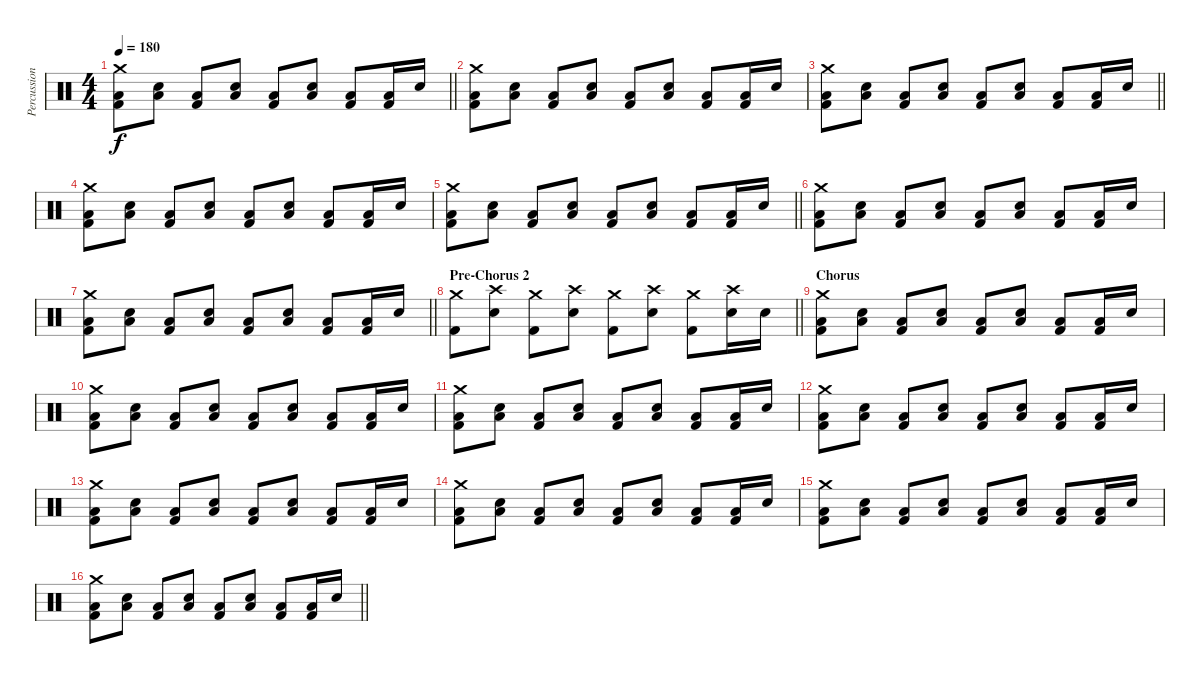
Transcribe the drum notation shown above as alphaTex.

\track ("Percussion" "Percussion") {instrument percussion}
\staff {score}
\articulation defaults
\ts (4 4)
\tempo 180
\clef neutral
\barLineRight lightlight
\ks c
("Low Floor Tom (hit)" "Kick (hit) 2" "Crash medium (hit)").8{dy f} ("Low Floor Tom (hit)" "Snare (hit) 2").8 ("Low Floor Tom (hit)" "Kick (hit) 2").8 ("Low Floor Tom (hit)" "Snare (hit) 2").8 ("Low Floor Tom (hit)" "Kick (hit) 2").8 ("Low Floor Tom (hit)" "Snare (hit) 2").8 ("Low Floor Tom (hit)" "Kick (hit) 2").8 ("Low Floor Tom (hit)" "Kick (hit) 2").16 "Snare (hit) 2".16 |
("Low Floor Tom (hit)" "Kick (hit) 2" "Crash medium (hit)").8 ("Low Floor Tom (hit)" "Snare (hit) 2").8 ("Low Floor Tom (hit)" "Kick (hit) 2").8 ("Low Floor Tom (hit)" "Snare (hit) 2").8 ("Low Floor Tom (hit)" "Kick (hit) 2").8 ("Low Floor Tom (hit)" "Snare (hit) 2").8 ("Low Floor Tom (hit)" "Kick (hit) 2").8 ("Low Floor Tom (hit)" "Kick (hit) 2").16 "Snare (hit) 2".16 |
\barLineRight lightlight
("Low Floor Tom (hit)" "Kick (hit) 2" "Crash medium (hit)").8 ("Low Floor Tom (hit)" "Snare (hit) 2").8 ("Low Floor Tom (hit)" "Kick (hit) 2").8 ("Low Floor Tom (hit)" "Snare (hit) 2").8 ("Low Floor Tom (hit)" "Kick (hit) 2").8 ("Low Floor Tom (hit)" "Snare (hit) 2").8 ("Low Floor Tom (hit)" "Kick (hit) 2").8 ("Low Floor Tom (hit)" "Kick (hit) 2").16 "Snare (hit) 2".16 |
("Low Floor Tom (hit)" "Kick (hit) 2" "Crash medium (hit)").8 ("Low Floor Tom (hit)" "Snare (hit) 2").8 ("Low Floor Tom (hit)" "Kick (hit) 2").8 ("Low Floor Tom (hit)" "Snare (hit) 2").8 ("Low Floor Tom (hit)" "Kick (hit) 2").8 ("Low Floor Tom (hit)" "Snare (hit) 2").8 ("Low Floor Tom (hit)" "Kick (hit) 2").8 ("Low Floor Tom (hit)" "Kick (hit) 2").16 "Snare (hit) 2".16 |
\barLineRight lightlight
("Low Floor Tom (hit)" "Kick (hit) 2" "Crash medium (hit)").8 ("Low Floor Tom (hit)" "Snare (hit) 2").8 ("Low Floor Tom (hit)" "Kick (hit) 2").8 ("Low Floor Tom (hit)" "Snare (hit) 2").8 ("Low Floor Tom (hit)" "Kick (hit) 2").8 ("Low Floor Tom (hit)" "Snare (hit) 2").8 ("Low Floor Tom (hit)" "Kick (hit) 2").8 ("Low Floor Tom (hit)" "Kick (hit) 2").16 "Snare (hit) 2".16 |
("Low Floor Tom (hit)" "Kick (hit) 2" "Crash medium (hit)").8 ("Low Floor Tom (hit)" "Snare (hit) 2").8 ("Low Floor Tom (hit)" "Kick (hit) 2").8 ("Low Floor Tom (hit)" "Snare (hit) 2").8 ("Low Floor Tom (hit)" "Kick (hit) 2").8 ("Low Floor Tom (hit)" "Snare (hit) 2").8 ("Low Floor Tom (hit)" "Kick (hit) 2").8 ("Low Floor Tom (hit)" "Kick (hit) 2").16 "Snare (hit) 2".16 |
\barLineRight lightlight
("Low Floor Tom (hit)" "Kick (hit) 2" "Crash medium (hit)").8 ("Low Floor Tom (hit)" "Snare (hit) 2").8 ("Low Floor Tom (hit)" "Kick (hit) 2").8 ("Low Floor Tom (hit)" "Snare (hit) 2").8 ("Low Floor Tom (hit)" "Kick (hit) 2").8 ("Low Floor Tom (hit)" "Snare (hit) 2").8 ("Low Floor Tom (hit)" "Kick (hit) 2").8 ("Low Floor Tom (hit)" "Kick (hit) 2").16 "Snare (hit) 2".16 |
\section ("" "Pre-Chorus 2")
\barLineRight lightlight
("Kick (hit) 2" "Crash medium (hit)").8 ("Snare (hit) 2" "Crash high (hit)").8 ("Kick (hit) 2" "Crash medium (hit)").8 ("Snare (hit) 2" "Crash high (hit)").8 ("Kick (hit) 2" "Crash medium (hit)").8 ("Snare (hit) 2" "Crash high (hit)").8 ("Kick (hit) 2" "Crash medium (hit)").8 ("Snare (hit) 2" "Crash high (hit)").16 "Snare (hit) 2".16 |
\section ("" "Chorus")
("Low Floor Tom (hit)" "Kick (hit) 2" "Crash medium (hit)").8 ("Low Floor Tom (hit)" "Snare (hit) 2").8 ("Low Floor Tom (hit)" "Kick (hit) 2").8 ("Low Floor Tom (hit)" "Snare (hit) 2").8 ("Low Floor Tom (hit)" "Kick (hit) 2").8 ("Low Floor Tom (hit)" "Snare (hit) 2").8 ("Low Floor Tom (hit)" "Kick (hit) 2").8 ("Low Floor Tom (hit)" "Kick (hit) 2").16 "Snare (hit) 2".16 |
("Low Floor Tom (hit)" "Kick (hit) 2" "Crash medium (hit)").8 ("Low Floor Tom (hit)" "Snare (hit) 2").8 ("Low Floor Tom (hit)" "Kick (hit) 2").8 ("Low Floor Tom (hit)" "Snare (hit) 2").8 ("Low Floor Tom (hit)" "Kick (hit) 2").8 ("Low Floor Tom (hit)" "Snare (hit) 2").8 ("Low Floor Tom (hit)" "Kick (hit) 2").8 ("Low Floor Tom (hit)" "Kick (hit) 2").16 "Snare (hit) 2".16 |
("Low Floor Tom (hit)" "Kick (hit) 2" "Crash medium (hit)").8 ("Low Floor Tom (hit)" "Snare (hit) 2").8 ("Low Floor Tom (hit)" "Kick (hit) 2").8 ("Low Floor Tom (hit)" "Snare (hit) 2").8 ("Low Floor Tom (hit)" "Kick (hit) 2").8 ("Low Floor Tom (hit)" "Snare (hit) 2").8 ("Low Floor Tom (hit)" "Kick (hit) 2").8 ("Low Floor Tom (hit)" "Kick (hit) 2").16 "Snare (hit) 2".16 |
("Low Floor Tom (hit)" "Kick (hit) 2" "Crash medium (hit)").8 ("Low Floor Tom (hit)" "Snare (hit) 2").8 ("Low Floor Tom (hit)" "Kick (hit) 2").8 ("Low Floor Tom (hit)" "Snare (hit) 2").8 ("Low Floor Tom (hit)" "Kick (hit) 2").8 ("Low Floor Tom (hit)" "Snare (hit) 2").8 ("Low Floor Tom (hit)" "Kick (hit) 2").8 ("Low Floor Tom (hit)" "Kick (hit) 2").16 "Snare (hit) 2".16 |
("Low Floor Tom (hit)" "Kick (hit) 2" "Crash medium (hit)").8 ("Low Floor Tom (hit)" "Snare (hit) 2").8 ("Low Floor Tom (hit)" "Kick (hit) 2").8 ("Low Floor Tom (hit)" "Snare (hit) 2").8 ("Low Floor Tom (hit)" "Kick (hit) 2").8 ("Low Floor Tom (hit)" "Snare (hit) 2").8 ("Low Floor Tom (hit)" "Kick (hit) 2").8 ("Low Floor Tom (hit)" "Kick (hit) 2").16 "Snare (hit) 2".16 |
("Low Floor Tom (hit)" "Kick (hit) 2" "Crash medium (hit)").8 ("Low Floor Tom (hit)" "Snare (hit) 2").8 ("Low Floor Tom (hit)" "Kick (hit) 2").8 ("Low Floor Tom (hit)" "Snare (hit) 2").8 ("Low Floor Tom (hit)" "Kick (hit) 2").8 ("Low Floor Tom (hit)" "Snare (hit) 2").8 ("Low Floor Tom (hit)" "Kick (hit) 2").8 ("Low Floor Tom (hit)" "Kick (hit) 2").16 "Snare (hit) 2".16 |
("Low Floor Tom (hit)" "Kick (hit) 2" "Crash medium (hit)").8 ("Low Floor Tom (hit)" "Snare (hit) 2").8 ("Low Floor Tom (hit)" "Kick (hit) 2").8 ("Low Floor Tom (hit)" "Snare (hit) 2").8 ("Low Floor Tom (hit)" "Kick (hit) 2").8 ("Low Floor Tom (hit)" "Snare (hit) 2").8 ("Low Floor Tom (hit)" "Kick (hit) 2").8 ("Low Floor Tom (hit)" "Kick (hit) 2").16 "Snare (hit) 2".16 |
\barLineRight lightlight
("Low Floor Tom (hit)" "Kick (hit) 2" "Crash medium (hit)").8 ("Low Floor Tom (hit)" "Snare (hit) 2").8 ("Low Floor Tom (hit)" "Kick (hit) 2").8 ("Low Floor Tom (hit)" "Snare (hit) 2").8 ("Low Floor Tom (hit)" "Kick (hit) 2").8 ("Low Floor Tom (hit)" "Snare (hit) 2").8 ("Low Floor Tom (hit)" "Kick (hit) 2").8 ("Low Floor Tom (hit)" "Kick (hit) 2").16 "Snare (hit) 2".16
